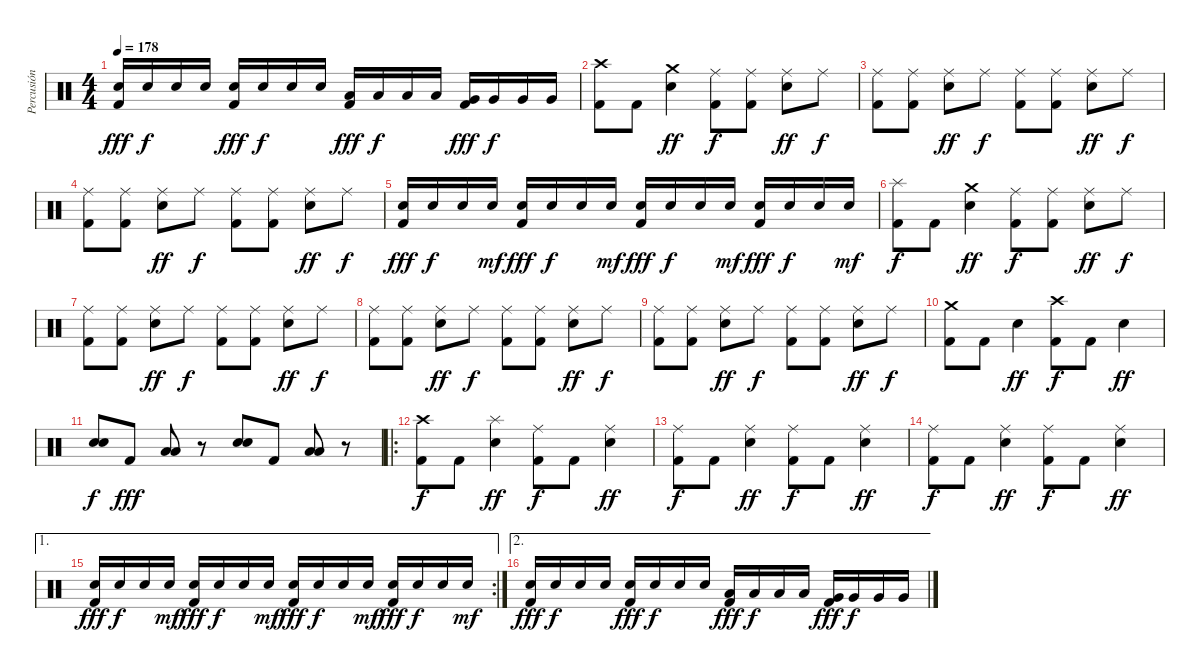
\track ("Percusión" "Percusión") {instrument percussion}
\staff {score}
\articulation defaults
\ts (4 4)
\tempo 178
\clef neutral
\ks c
("Snare (hit) 2" "Kick (hit) 2").16{dy fff} "Snare (hit) 2".16{dy f} "Snare (hit) 2".16 "Snare (hit) 2".16 ("Snare (hit) 2" "Kick (hit) 2").16{dy fff} "Snare (hit) 2".16{dy f} "Snare (hit) 2".16 "Snare (hit) 2".16 ("Low Tom (hit)" "Kick (hit) 2").16{dy fff} "Low Tom (hit)".16{dy f} "Low Tom (hit)".16 "Low Tom (hit)".16 ("Very Low Tom (hit)" "Kick (hit) 2").16{dy fff} "Very Low Tom (hit)".16{dy f} "Very Low Tom (hit)".16 "Very Low Tom (hit)".16 |
("Crash high (hit)" "Kick (hit) 2").8 "Kick (hit) 2".8 ("Crash medium (hit)" "Snare (hit) 2").4{dy ff} ("Ride (middle)" "Kick (hit) 2").8{dy f} ("Ride (middle)" "Kick (hit) 2").8 ("Ride (middle)" "Snare (hit) 2").8{dy ff} "Ride (middle)".8{dy f} |
("Ride (middle)" "Kick (hit) 2").8 ("Ride (middle)" "Kick (hit) 2").8 ("Ride (middle)" "Snare (hit) 2").8{dy ff} "Ride (middle)".8{dy f} ("Ride (middle)" "Kick (hit) 2").8 ("Ride (middle)" "Kick (hit) 2").8 ("Ride (middle)" "Snare (hit) 2").8{dy ff} "Ride (middle)".8{dy f} |
("Ride (middle)" "Kick (hit) 2").8 ("Ride (middle)" "Kick (hit) 2").8 ("Ride (middle)" "Snare (hit) 2").8{dy ff} "Ride (middle)".8{dy f} ("Ride (middle)" "Kick (hit) 2").8 ("Ride (middle)" "Kick (hit) 2").8 ("Ride (middle)" "Snare (hit) 2").8{dy ff} "Ride (middle)".8{dy f} |
("Snare (hit) 2" "Kick (hit) 2").16{dy fff} "Snare (hit) 2".16{dy f} "Snare (hit) 2".16 "Snare (hit) 2".16{dy mf} ("Snare (hit) 2" "Kick (hit) 2").16{dy fff} "Snare (hit) 2".16{dy f} "Snare (hit) 2".16 "Snare (hit) 2".16{dy mf} ("Snare (hit) 2" "Kick (hit) 2").16{dy fff} "Snare (hit) 2".16{dy f} "Snare (hit) 2".16 "Snare (hit) 2".16{dy mf} ("Snare (hit) 2" "Kick (hit) 2").16{dy fff} "Snare (hit) 2".16{dy f} "Snare (hit) 2".16 "Snare (hit) 2".16{dy mf} |
("Splash (hit)" "Kick (hit) 2").8{dy f} "Kick (hit) 2".8 ("Crash medium (hit)" "Snare (hit) 2").4{dy ff} ("Ride (middle)" "Kick (hit) 2").8{dy f} ("Ride (middle)" "Kick (hit) 2").8 ("Ride (middle)" "Snare (hit) 2").8{dy ff} "Ride (middle)".8{dy f} |
("Ride (middle)" "Kick (hit) 2").8 ("Ride (middle)" "Kick (hit) 2").8 ("Ride (middle)" "Snare (hit) 2").8{dy ff} "Ride (middle)".8{dy f} ("Ride (middle)" "Kick (hit) 2").8 ("Ride (middle)" "Kick (hit) 2").8 ("Ride (middle)" "Snare (hit) 2").8{dy ff} "Ride (middle)".8{dy f} |
("Ride (middle)" "Kick (hit) 2").8 ("Ride (middle)" "Kick (hit) 2").8 ("Ride (middle)" "Snare (hit) 2").8{dy ff} "Ride (middle)".8{dy f} ("Ride (middle)" "Kick (hit) 2").8 ("Ride (middle)" "Kick (hit) 2").8 ("Ride (middle)" "Snare (hit) 2").8{dy ff} "Ride (middle)".8{dy f} |
("Ride (middle)" "Kick (hit) 2").8 ("Ride (middle)" "Kick (hit) 2").8 ("Ride (middle)" "Snare (hit) 2").8{dy ff} "Ride (middle)".8{dy f} ("Ride (middle)" "Kick (hit) 2").8 ("Ride (middle)" "Kick (hit) 2").8 ("Ride (middle)" "Snare (hit) 2").8{dy ff} "Ride (middle)".8{dy f} |
("Crash medium (hit)" "Kick (hit) 2").8 "Kick (hit) 2".8 "Snare (hit) 2".4{dy ff} ("Crash high (hit)" "Kick (hit) 2").8{dy f} "Kick (hit) 2".8 "Snare (hit) 2".4{dy ff} |
("Snare (hit) 2" "Snare (hit) 2").8{dy f} "Kick (hit) 2".8{dy fff} ("Low Tom (hit)" "Low Tom (hit)").8 r.8 ("Snare (hit) 2" "Snare (hit) 2").8 "Kick (hit) 2".8 ("Low Tom (hit)" "Low Tom (hit)").8 r.8 |
\ro
("Crash high (hit)" "Kick (hit) 2").8{dy f} "Kick (hit) 2".8 ("Splash (hit)" "Snare (hit) 2").4{dy ff} ("Ride (middle)" "Kick (hit) 2").8{dy f} "Kick (hit) 2".8 ("Ride (middle)" "Snare (hit) 2").4{dy ff} |
("Ride (middle)" "Kick (hit) 2").8{dy f} "Kick (hit) 2".8 ("Ride (middle)" "Snare (hit) 2").4{dy ff} ("Ride (middle)" "Kick (hit) 2").8{dy f} "Kick (hit) 2".8 ("Ride (middle)" "Snare (hit) 2").4{dy ff} |
("Ride (middle)" "Kick (hit) 2").8{dy f} "Kick (hit) 2".8 ("Ride (middle)" "Snare (hit) 2").4{dy ff} ("Ride (middle)" "Kick (hit) 2").8{dy f} "Kick (hit) 2".8 ("Ride (middle)" "Snare (hit) 2").4{dy ff} |
\ae 1
\rc 2
("Snare (hit) 2" "Kick (hit) 2").16{dy fff} "Snare (hit) 2".16{dy f} "Snare (hit) 2".16 "Snare (hit) 2".16{dy mf} ("Snare (hit) 2" "Kick (hit) 2").16{dy fff} "Snare (hit) 2".16{dy f} "Snare (hit) 2".16 "Snare (hit) 2".16{dy mf} ("Snare (hit) 2" "Kick (hit) 2").16{dy fff} "Snare (hit) 2".16{dy f} "Snare (hit) 2".16 "Snare (hit) 2".16{dy mf} ("Snare (hit) 2" "Kick (hit) 2").16{dy fff} "Snare (hit) 2".16{dy f} "Snare (hit) 2".16 "Snare (hit) 2".16{dy mf} |
\ae 2
("Snare (hit) 2" "Kick (hit) 2").16{dy fff} "Snare (hit) 2".16{dy f} "Snare (hit) 2".16 "Snare (hit) 2".16 ("Snare (hit) 2" "Kick (hit) 2").16{dy fff} "Snare (hit) 2".16{dy f} "Snare (hit) 2".16 "Snare (hit) 2".16 ("Low Tom (hit)" "Kick (hit) 2").16{dy fff} "Low Tom (hit)".16{dy f} "Low Tom (hit)".16 "Low Tom (hit)".16 ("Very Low Tom (hit)" "Kick (hit) 2").16{dy fff} "Very Low Tom (hit)".16{dy f} "Very Low Tom (hit)".16 "Very Low Tom (hit)".16
